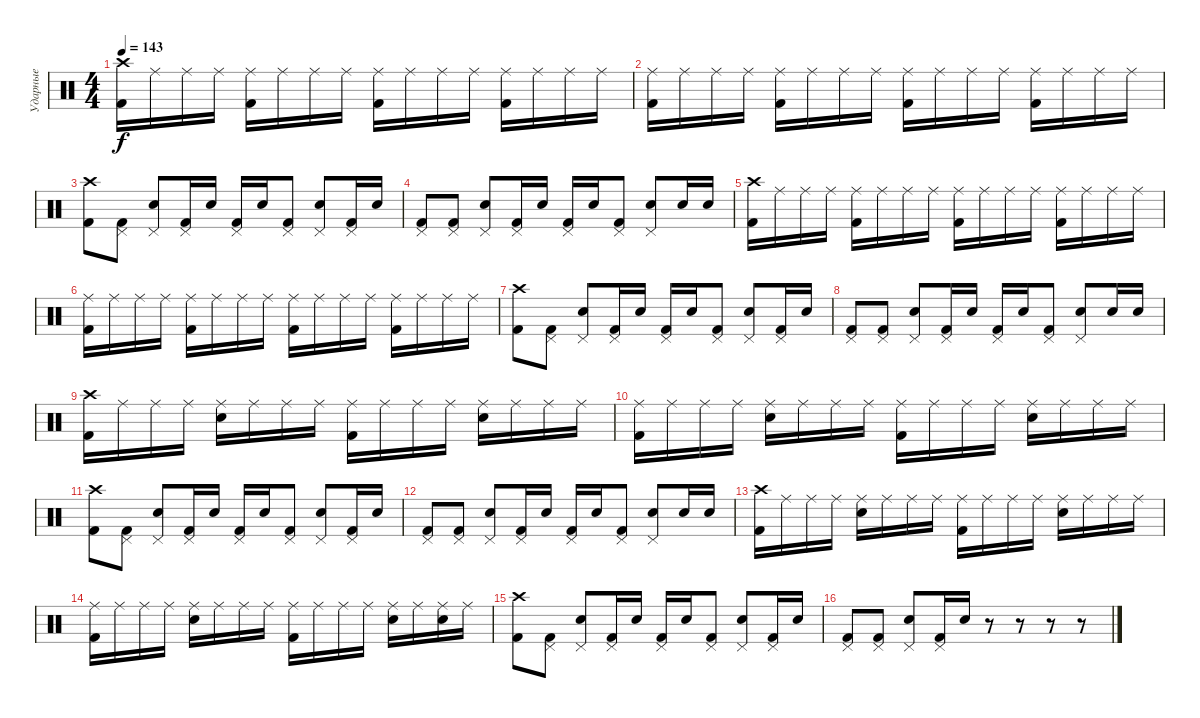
\track ("Ударные" "Ударные") {instrument percussion}
\staff {score}
\articulation defaults
\ts (4 4)
\tempo 143
\clef neutral
\ks c
("Crash high (hit)" "Kick (hit) 2").16{dy f} "Ride (middle)".16 "Ride (middle)".16 "Ride (middle)".16 ("Ride (middle)" "Kick (hit) 2").16 "Ride (middle)".16 "Ride (middle)".16 "Ride (middle)".16 ("Ride (middle)" "Kick (hit) 2").16 "Ride (middle)".16 "Ride (middle)".16 "Ride (middle)".16 ("Ride (middle)" "Kick (hit) 2").16 "Ride (middle)".16 "Ride (middle)".16 "Ride (middle)".16 |
("Ride (middle)" "Kick (hit) 2").16 "Ride (middle)".16 "Ride (middle)".16 "Ride (middle)".16 ("Ride (middle)" "Kick (hit) 2").16 "Ride (middle)".16 "Ride (middle)".16 "Ride (middle)".16 ("Ride (middle)" "Kick (hit) 2").16 "Ride (middle)".16 "Ride (middle)".16 "Ride (middle)".16 ("Ride (middle)" "Kick (hit) 2").16 "Ride (middle)".16 "Ride (middle)".16 "Ride (middle)".16 |
("Crash high (hit)" "Kick (hit) 2").8 ("Pedal Hi-Hat (hit)" "Kick (hit) 2").8 ("Pedal Hi-Hat (hit)" "Electric Snare (hit)").8 ("Pedal Hi-Hat (hit)" "Kick (hit) 2").16 "Electric Snare (hit)".16 ("Pedal Hi-Hat (hit)" "Kick (hit) 2").16 "Electric Snare (hit)".16 ("Pedal Hi-Hat (hit)" "Kick (hit) 2").8 ("Pedal Hi-Hat (hit)" "Electric Snare (hit)").8 ("Pedal Hi-Hat (hit)" "Kick (hit) 2").16 "Electric Snare (hit)".16 |
("Pedal Hi-Hat (hit)" "Kick (hit) 2").8 ("Pedal Hi-Hat (hit)" "Kick (hit) 2").8 ("Pedal Hi-Hat (hit)" "Electric Snare (hit)").8 ("Pedal Hi-Hat (hit)" "Kick (hit) 2").16 "Electric Snare (hit)".16 ("Pedal Hi-Hat (hit)" "Kick (hit) 2").16 "Electric Snare (hit)".16 ("Pedal Hi-Hat (hit)" "Kick (hit) 2").8 ("Pedal Hi-Hat (hit)" "Electric Snare (hit)").8 "Electric Snare (hit)".16 "Electric Snare (hit)".16 |
("Crash high (hit)" "Kick (hit) 2").16 "Ride (middle)".16 "Ride (middle)".16 "Ride (middle)".16 ("Ride (middle)" "Kick (hit) 2").16 "Ride (middle)".16 "Ride (middle)".16 "Ride (middle)".16 ("Ride (middle)" "Kick (hit) 2").16 "Ride (middle)".16 "Ride (middle)".16 "Ride (middle)".16 ("Ride (middle)" "Kick (hit) 2").16 "Ride (middle)".16 "Ride (middle)".16 "Ride (middle)".16 |
("Ride (middle)" "Kick (hit) 2").16 "Ride (middle)".16 "Ride (middle)".16 "Ride (middle)".16 ("Ride (middle)" "Kick (hit) 2").16 "Ride (middle)".16 "Ride (middle)".16 "Ride (middle)".16 ("Ride (middle)" "Kick (hit) 2").16 "Ride (middle)".16 "Ride (middle)".16 "Ride (middle)".16 ("Ride (middle)" "Kick (hit) 2").16 "Ride (middle)".16 "Ride (middle)".16 "Ride (middle)".16 |
("Crash high (hit)" "Kick (hit) 2").8 ("Pedal Hi-Hat (hit)" "Kick (hit) 2").8 ("Pedal Hi-Hat (hit)" "Electric Snare (hit)").8 ("Pedal Hi-Hat (hit)" "Kick (hit) 2").16 "Electric Snare (hit)".16 ("Pedal Hi-Hat (hit)" "Kick (hit) 2").16 "Electric Snare (hit)".16 ("Pedal Hi-Hat (hit)" "Kick (hit) 2").8 ("Pedal Hi-Hat (hit)" "Electric Snare (hit)").8 ("Pedal Hi-Hat (hit)" "Kick (hit) 2").16 "Electric Snare (hit)".16 |
("Pedal Hi-Hat (hit)" "Kick (hit) 2").8 ("Pedal Hi-Hat (hit)" "Kick (hit) 2").8 ("Pedal Hi-Hat (hit)" "Electric Snare (hit)").8 ("Pedal Hi-Hat (hit)" "Kick (hit) 2").16 "Electric Snare (hit)".16 ("Pedal Hi-Hat (hit)" "Kick (hit) 2").16 "Electric Snare (hit)".16 ("Pedal Hi-Hat (hit)" "Kick (hit) 2").8 ("Pedal Hi-Hat (hit)" "Electric Snare (hit)").8 "Electric Snare (hit)".16 "Electric Snare (hit)".16 |
("Crash high (hit)" "Kick (hit) 2").16 "Ride (middle)".16 "Ride (middle)".16 "Ride (middle)".16 ("Ride (middle)" "Electric Snare (hit)").16 "Ride (middle)".16 "Ride (middle)".16 "Ride (middle)".16 ("Ride (middle)" "Kick (hit) 2").16 "Ride (middle)".16 "Ride (middle)".16 "Ride (middle)".16 ("Ride (middle)" "Electric Snare (hit)").16 "Ride (middle)".16 "Ride (middle)".16 "Ride (middle)".16 |
("Ride (middle)" "Kick (hit) 2").16 "Ride (middle)".16 "Ride (middle)".16 "Ride (middle)".16 ("Ride (middle)" "Electric Snare (hit)").16 "Ride (middle)".16 "Ride (middle)".16 "Ride (middle)".16 ("Ride (middle)" "Kick (hit) 2").16 "Ride (middle)".16 "Ride (middle)".16 "Ride (middle)".16 ("Ride (middle)" "Electric Snare (hit)").16 "Ride (middle)".16 "Ride (middle)".16 "Ride (middle)".16 |
("Crash high (hit)" "Kick (hit) 2").8 ("Pedal Hi-Hat (hit)" "Kick (hit) 2").8 ("Pedal Hi-Hat (hit)" "Electric Snare (hit)").8 ("Pedal Hi-Hat (hit)" "Kick (hit) 2").16 "Electric Snare (hit)".16 ("Pedal Hi-Hat (hit)" "Kick (hit) 2").16 "Electric Snare (hit)".16 ("Pedal Hi-Hat (hit)" "Kick (hit) 2").8 ("Pedal Hi-Hat (hit)" "Electric Snare (hit)").8 ("Pedal Hi-Hat (hit)" "Kick (hit) 2").16 "Electric Snare (hit)".16 |
("Pedal Hi-Hat (hit)" "Kick (hit) 2").8 ("Pedal Hi-Hat (hit)" "Kick (hit) 2").8 ("Pedal Hi-Hat (hit)" "Electric Snare (hit)").8 ("Pedal Hi-Hat (hit)" "Kick (hit) 2").16 "Electric Snare (hit)".16 ("Pedal Hi-Hat (hit)" "Kick (hit) 2").16 "Electric Snare (hit)".16 ("Pedal Hi-Hat (hit)" "Kick (hit) 2").8 ("Pedal Hi-Hat (hit)" "Electric Snare (hit)").8 "Electric Snare (hit)".16 "Electric Snare (hit)".16 |
("Crash high (hit)" "Kick (hit) 2").16 "Ride (middle)".16 "Ride (middle)".16 "Ride (middle)".16 ("Ride (middle)" "Electric Snare (hit)").16 "Ride (middle)".16 "Ride (middle)".16 "Ride (middle)".16 ("Ride (middle)" "Kick (hit) 2").16 "Ride (middle)".16 "Ride (middle)".16 "Ride (middle)".16 ("Ride (middle)" "Electric Snare (hit)").16 "Ride (middle)".16 "Ride (middle)".16 "Ride (middle)".16 |
("Ride (middle)" "Kick (hit) 2").16 "Ride (middle)".16 "Ride (middle)".16 "Ride (middle)".16 ("Ride (middle)" "Electric Snare (hit)").16 "Ride (middle)".16 "Ride (middle)".16 "Ride (middle)".16 ("Ride (middle)" "Kick (hit) 2").16 "Ride (middle)".16 "Ride (middle)".16 "Ride (middle)".16 ("Ride (middle)" "Electric Snare (hit)").16 "Ride (middle)".16 ("Ride (middle)" "Electric Snare (hit)").16 "Ride (middle)".16 |
("Crash high (hit)" "Kick (hit) 2").8 ("Pedal Hi-Hat (hit)" "Kick (hit) 2").8 ("Pedal Hi-Hat (hit)" "Electric Snare (hit)").8 ("Pedal Hi-Hat (hit)" "Kick (hit) 2").16 "Electric Snare (hit)".16 ("Pedal Hi-Hat (hit)" "Kick (hit) 2").16 "Electric Snare (hit)".16 ("Pedal Hi-Hat (hit)" "Kick (hit) 2").8 ("Pedal Hi-Hat (hit)" "Electric Snare (hit)").8 ("Pedal Hi-Hat (hit)" "Kick (hit) 2").16 "Electric Snare (hit)".16 |
("Pedal Hi-Hat (hit)" "Kick (hit) 2").8 ("Pedal Hi-Hat (hit)" "Kick (hit) 2").8 ("Pedal Hi-Hat (hit)" "Electric Snare (hit)").8 ("Pedal Hi-Hat (hit)" "Kick (hit) 2").16 "Electric Snare (hit)".16 r.8 r.8 r.8 r.8
